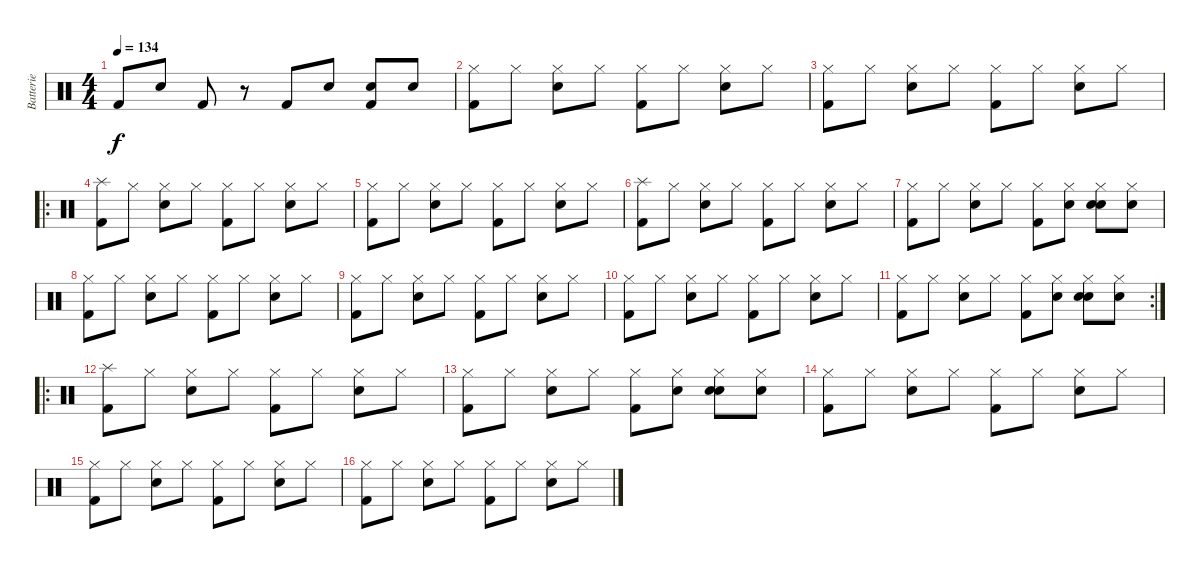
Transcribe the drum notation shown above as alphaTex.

\track ("Batterie" "Batterie") {instrument percussion}
\staff {score}
\articulation defaults
\ts (4 4)
\tempo 134
\clef neutral
\ks c "Kick (hit) 2".8{dy f} "Hand Clap (hit)".8 "Kick (hit) 2".8
r.8 "Kick (hit) 2".8 "Hand Clap (hit)".8 ("Kick (hit) 2" "Hand Clap (hit)").8 "Hand Clap (hit)".8 |
("Kick (hit) 2" "Hi-Hat (closed)").8 "Hi-Hat (closed)".8 ("Snare (hit) 2" "Hi-Hat (closed)").8 "Hi-Hat (closed)".8 ("Kick (hit) 2" "Hi-Hat (closed)").8 "Hi-Hat (closed)".8 ("Snare (hit) 2" "Hi-Hat (closed)").8 "Hi-Hat (closed)".8 |
("Kick (hit) 2" "Hi-Hat (closed)").8 "Hi-Hat (closed)".8 ("Snare (hit) 2" "Hi-Hat (closed)").8 "Hi-Hat (closed)".8 ("Kick (hit) 2" "Hi-Hat (closed)").8 "Hi-Hat (closed)".8 ("Snare (hit) 2" "Hi-Hat (closed)").8 "Hi-Hat (closed)".8 |
\ro
("Kick (hit) 2" "Splash (hit)").8 "Hi-Hat (closed)".8 ("Snare (hit) 2" "Hi-Hat (closed)").8 "Hi-Hat (closed)".8 ("Kick (hit) 2" "Hi-Hat (closed)").8 "Hi-Hat (closed)".8 ("Snare (hit) 2" "Hi-Hat (closed)").8 "Hi-Hat (closed)".8 |
("Kick (hit) 2" "Hi-Hat (closed)").8 "Hi-Hat (closed)".8 ("Snare (hit) 2" "Hi-Hat (closed)").8 "Hi-Hat (closed)".8 ("Kick (hit) 2" "Hi-Hat (closed)").8 "Hi-Hat (closed)".8 ("Snare (hit) 2" "Hi-Hat (closed)").8 "Hi-Hat (closed)".8 |
("Kick (hit) 2" "Splash (hit)").8 "Hi-Hat (closed)".8 ("Snare (hit) 2" "Hi-Hat (closed)").8 "Hi-Hat (closed)".8 ("Kick (hit) 2" "Hi-Hat (closed)").8 "Hi-Hat (closed)".8 ("Snare (hit) 2" "Hi-Hat (closed)").8 "Hi-Hat (closed)".8 |
("Kick (hit) 2" "Hi-Hat (closed)").8 "Hi-Hat (closed)".8 ("Snare (hit) 2" "Hi-Hat (closed)").8 "Hi-Hat (closed)".8 ("Kick (hit) 2" "Hi-Hat (closed)").8 ("Hi-Hat (closed)" "Hand Clap (hit)").8 ("Snare (hit) 2" "Hi-Hat (closed)" "Hand Clap (hit)").8 ("Hi-Hat (closed)" "Hand Clap (hit)").8 |
("Kick (hit) 2" "Hi-Hat (closed)").8 "Hi-Hat (closed)".8 ("Snare (hit) 2" "Hi-Hat (closed)").8 "Hi-Hat (closed)".8 ("Kick (hit) 2" "Hi-Hat (closed)").8 "Hi-Hat (closed)".8 ("Snare (hit) 2" "Hi-Hat (closed)").8 "Hi-Hat (closed)".8 |
("Kick (hit) 2" "Hi-Hat (closed)").8 "Hi-Hat (closed)".8 ("Snare (hit) 2" "Hi-Hat (closed)").8 "Hi-Hat (closed)".8 ("Kick (hit) 2" "Hi-Hat (closed)").8 "Hi-Hat (closed)".8 ("Snare (hit) 2" "Hi-Hat (closed)").8 "Hi-Hat (closed)".8 |
("Kick (hit) 2" "Hi-Hat (closed)").8 "Hi-Hat (closed)".8 ("Snare (hit) 2" "Hi-Hat (closed)").8 "Hi-Hat (closed)".8 ("Kick (hit) 2" "Hi-Hat (closed)").8 "Hi-Hat (closed)".8 ("Snare (hit) 2" "Hi-Hat (closed)").8 "Hi-Hat (closed)".8 |
\rc 2
("Kick (hit) 2" "Hi-Hat (closed)").8 "Hi-Hat (closed)".8 ("Snare (hit) 2" "Hi-Hat (closed)").8 "Hi-Hat (closed)".8 ("Kick (hit) 2" "Hi-Hat (closed)").8 ("Hi-Hat (closed)" "Hand Clap (hit)").8 ("Snare (hit) 2" "Hi-Hat (closed)" "Hand Clap (hit)").8 ("Hi-Hat (closed)" "Hand Clap (hit)").8 |
\ro
("Kick (hit) 2" "Splash (hit)").8 "Hi-Hat (closed)".8 ("Snare (hit) 2" "Hi-Hat (closed)").8 "Hi-Hat (closed)".8 ("Kick (hit) 2" "Hi-Hat (closed)").8 "Hi-Hat (closed)".8 ("Snare (hit) 2" "Hi-Hat (closed)").8 "Hi-Hat (closed)".8 |
("Kick (hit) 2" "Hi-Hat (closed)").8 "Hi-Hat (closed)".8 ("Snare (hit) 2" "Hi-Hat (closed)").8 "Hi-Hat (closed)".8 ("Kick (hit) 2" "Hi-Hat (closed)").8 ("Hi-Hat (closed)" "Hand Clap (hit)").8 ("Snare (hit) 2" "Hi-Hat (closed)" "Hand Clap (hit)").8 ("Hi-Hat (closed)" "Hand Clap (hit)").8 |
("Kick (hit) 2" "Hi-Hat (closed)").8 "Hi-Hat (closed)".8 ("Snare (hit) 2" "Hi-Hat (closed)").8 "Hi-Hat (closed)".8 ("Kick (hit) 2" "Hi-Hat (closed)").8 "Hi-Hat (closed)".8 ("Snare (hit) 2" "Hi-Hat (closed)").8 "Hi-Hat (closed)".8 |
("Kick (hit) 2" "Hi-Hat (closed)").8 "Hi-Hat (closed)".8 ("Snare (hit) 2" "Hi-Hat (closed)").8 "Hi-Hat (closed)".8 ("Kick (hit) 2" "Hi-Hat (closed)").8 "Hi-Hat (closed)".8 ("Snare (hit) 2" "Hi-Hat (closed)").8 "Hi-Hat (closed)".8 |
("Kick (hit) 2" "Hi-Hat (closed)").8 "Hi-Hat (closed)".8 ("Snare (hit) 2" "Hi-Hat (closed)").8 "Hi-Hat (closed)".8 ("Kick (hit) 2" "Hi-Hat (closed)").8 "Hi-Hat (closed)".8 ("Snare (hit) 2" "Hi-Hat (closed)").8 "Hi-Hat (closed)".8
